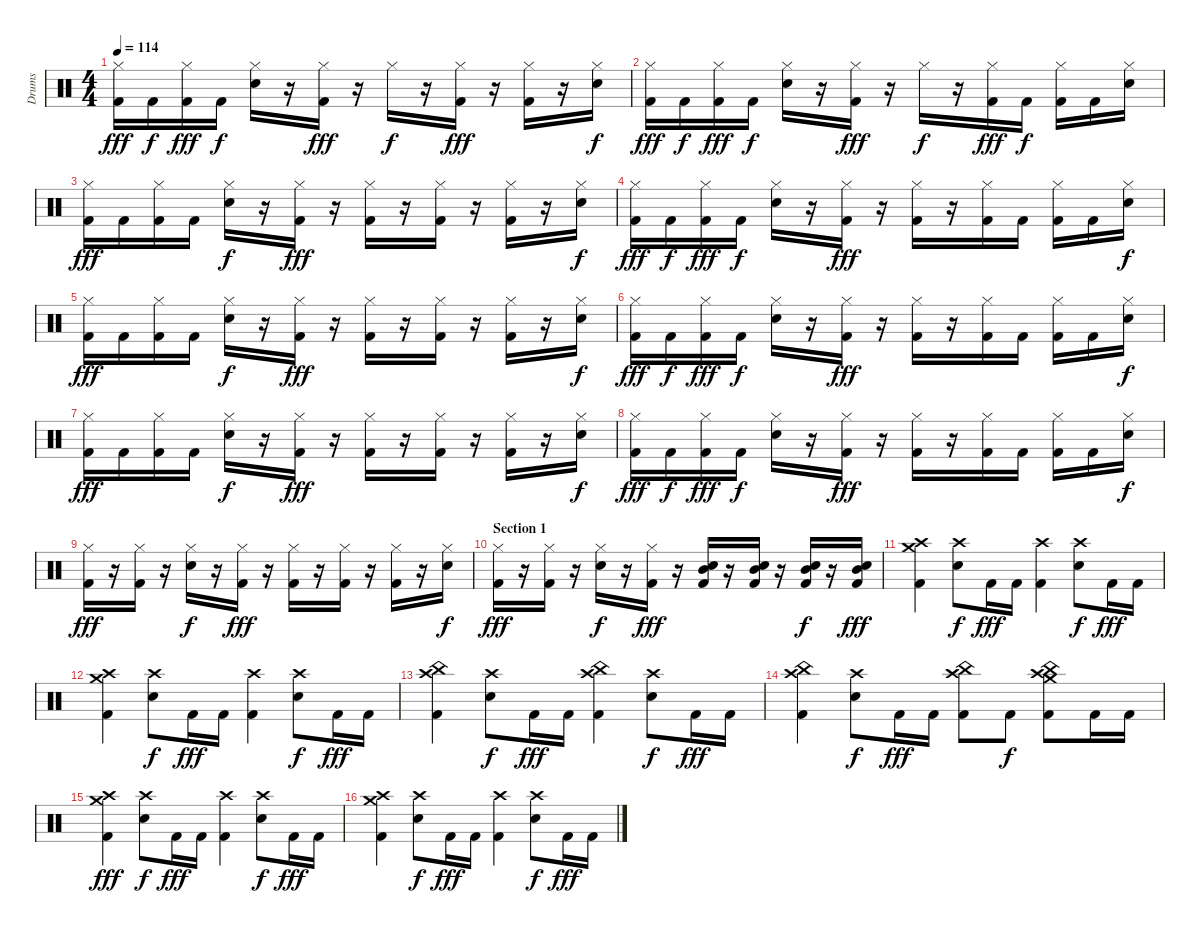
\track ("Drums" "Drums") {instrument percussion}
\staff {score}
\articulation defaults
\ts (4 4)
\tempo 114
\clef neutral
\ks c
("Hi-Hat (closed)" "Kick (hit) 2").16{dy fff} "Kick (hit) 2".16{dy f} ("Hi-Hat (closed)" "Kick (hit) 2").16{dy fff} "Kick (hit) 2".16{dy f} ("Hi-Hat (closed)" "Snare (hit) 2").16 r.16 ("Hi-Hat (closed)" "Kick (hit) 2").16{dy fff} r.16 "Hi-Hat (closed)".16{dy f} r.16 ("Hi-Hat (closed)" "Kick (hit) 2").16{dy fff} r.16 ("Hi-Hat (closed)" "Kick (hit) 2").16 r.16 ("Hi-Hat (closed)" "Snare (hit) 2").16{dy f} |
("Hi-Hat (closed)" "Kick (hit) 2").16{dy fff} "Kick (hit) 2".16{dy f} ("Hi-Hat (closed)" "Kick (hit) 2").16{dy fff} "Kick (hit) 2".16{dy f} ("Hi-Hat (closed)" "Snare (hit) 2").16 r.16 ("Hi-Hat (closed)" "Kick (hit) 2").16{dy fff} r.16 "Hi-Hat (closed)".16{dy f} r.16 ("Hi-Hat (closed)" "Kick (hit) 2").16{dy fff} "Kick (hit) 2".16{dy f} ("Hi-Hat (closed)" "Kick (hit) 2").16 "Kick (hit) 2".16 ("Hi-Hat (closed)" "Snare (hit) 2").16 |
("Hi-Hat (closed)" "Kick (hit) 2").16{dy fff} "Kick (hit) 2".16 ("Hi-Hat (closed)" "Kick (hit) 2").16 "Kick (hit) 2".16 ("Hi-Hat (closed)" "Snare (hit) 2").16{dy f} r.16 ("Hi-Hat (closed)" "Kick (hit) 2").16{dy fff} r.16 ("Hi-Hat (closed)" "Kick (hit) 2").16 r.16 ("Hi-Hat (closed)" "Kick (hit) 2").16 r.16 ("Hi-Hat (closed)" "Kick (hit) 2").16 r.16 ("Hi-Hat (closed)" "Snare (hit) 2").16{dy f} |
("Hi-Hat (closed)" "Kick (hit) 2").16{dy fff} "Kick (hit) 2".16{dy f} ("Hi-Hat (closed)" "Kick (hit) 2").16{dy fff} "Kick (hit) 2".16{dy f} ("Hi-Hat (closed)" "Snare (hit) 2").16 r.16 ("Hi-Hat (closed)" "Kick (hit) 2").16{dy fff} r.16 ("Hi-Hat (closed)" "Kick (hit) 2").16 r.16 ("Hi-Hat (closed)" "Kick (hit) 2").16 "Kick (hit) 2".16 ("Hi-Hat (closed)" "Kick (hit) 2").16 "Kick (hit) 2".16 ("Hi-Hat (closed)" "Snare (hit) 2").16{dy f} |
("Hi-Hat (closed)" "Kick (hit) 2").16{dy fff} "Kick (hit) 2".16 ("Hi-Hat (closed)" "Kick (hit) 2").16 "Kick (hit) 2".16 ("Hi-Hat (closed)" "Snare (hit) 2").16{dy f} r.16 ("Hi-Hat (closed)" "Kick (hit) 2").16{dy fff} r.16 ("Hi-Hat (closed)" "Kick (hit) 2").16 r.16 ("Hi-Hat (closed)" "Kick (hit) 2").16 r.16 ("Hi-Hat (closed)" "Kick (hit) 2").16 r.16 ("Hi-Hat (closed)" "Snare (hit) 2").16{dy f} |
("Hi-Hat (closed)" "Kick (hit) 2").16{dy fff} "Kick (hit) 2".16{dy f} ("Hi-Hat (closed)" "Kick (hit) 2").16{dy fff} "Kick (hit) 2".16{dy f} ("Hi-Hat (closed)" "Snare (hit) 2").16 r.16 ("Hi-Hat (closed)" "Kick (hit) 2").16{dy fff} r.16 ("Hi-Hat (closed)" "Kick (hit) 2").16 r.16 ("Hi-Hat (closed)" "Kick (hit) 2").16 "Kick (hit) 2".16 ("Hi-Hat (closed)" "Kick (hit) 2").16 "Kick (hit) 2".16 ("Hi-Hat (closed)" "Snare (hit) 2").16{dy f} |
("Hi-Hat (closed)" "Kick (hit) 2").16{dy fff} "Kick (hit) 2".16 ("Hi-Hat (closed)" "Kick (hit) 2").16 "Kick (hit) 2".16 ("Hi-Hat (closed)" "Snare (hit) 2").16{dy f} r.16 ("Hi-Hat (closed)" "Kick (hit) 2").16{dy fff} r.16 ("Hi-Hat (closed)" "Kick (hit) 2").16 r.16 ("Hi-Hat (closed)" "Kick (hit) 2").16 r.16 ("Hi-Hat (closed)" "Kick (hit) 2").16 r.16 ("Hi-Hat (closed)" "Snare (hit) 2").16{dy f} |
("Hi-Hat (closed)" "Kick (hit) 2").16{dy fff} "Kick (hit) 2".16{dy f} ("Hi-Hat (closed)" "Kick (hit) 2").16{dy fff} "Kick (hit) 2".16{dy f} ("Hi-Hat (closed)" "Snare (hit) 2").16 r.16 ("Hi-Hat (closed)" "Kick (hit) 2").16{dy fff} r.16 ("Hi-Hat (closed)" "Kick (hit) 2").16 r.16 ("Hi-Hat (closed)" "Kick (hit) 2").16 "Kick (hit) 2".16 ("Hi-Hat (closed)" "Kick (hit) 2").16 "Kick (hit) 2".16 ("Hi-Hat (closed)" "Snare (hit) 2").16{dy f} |
("Hi-Hat (closed)" "Kick (hit) 2").16{dy fff} r.16 ("Hi-Hat (closed)" "Kick (hit) 2").16 r.16 ("Hi-Hat (closed)" "Snare (hit) 2").16{dy f} r.16 ("Hi-Hat (closed)" "Kick (hit) 2").16{dy fff} r.16 ("Hi-Hat (closed)" "Kick (hit) 2").16 r.16 ("Hi-Hat (closed)" "Kick (hit) 2").16 r.16 ("Hi-Hat (closed)" "Kick (hit) 2").16 r.16 ("Hi-Hat (closed)" "Snare (hit) 2").16{dy f} |
\section ("" "Section 1")
("Hi-Hat (closed)" "Kick (hit) 2").16{dy fff} r.16 ("Hi-Hat (closed)" "Kick (hit) 2").16 r.16 ("Hi-Hat (closed)" "Snare (hit) 2").16{dy f} r.16 ("Hi-Hat (closed)" "Kick (hit) 2").16{dy fff} r.16 ("Mid Tom (hit)" "Kick (hit) 2" "Snare (hit) 2").16 r.16 ("Mid Tom (hit)" "Kick (hit) 2" "Snare (hit) 2").16 r.16 ("Mid Tom (hit)" "Kick (hit) 2" "Snare (hit) 2").16{dy f} r.16 ("Mid Tom (hit)" "Kick (hit) 2" "Snare (hit) 2").16{dy fff} |
("Crash high (hit)" "Crash medium (hit)" "Kick (hit) 2").4 ("Crash high (hit)" "Snare (hit) 2").8{dy f} "Kick (hit) 2".16{dy fff} "Kick (hit) 2".16 ("Crash high (hit)" "Kick (hit) 2").4 ("Crash high (hit)" "Snare (hit) 2").8{dy f} "Kick (hit) 2".16{dy fff} "Kick (hit) 2".16 |
("Crash high (hit)" "Crash medium (hit)" "Kick (hit) 2").4 ("Crash high (hit)" "Snare (hit) 2").8{dy f} "Kick (hit) 2".16{dy fff} "Kick (hit) 2".16 ("Crash high (hit)" "Kick (hit) 2").4 ("Crash high (hit)" "Snare (hit) 2").8{dy f} "Kick (hit) 2".16{dy fff} "Kick (hit) 2".16 |
("Crash high (hit)" "China (hit)" "Kick (hit) 2").4 ("Crash high (hit)" "Snare (hit) 2").8{dy f} "Kick (hit) 2".16{dy fff} "Kick (hit) 2".16 ("Crash high (hit)" "China (hit)" "Kick (hit) 2").4 ("Crash high (hit)" "Snare (hit) 2").8{dy f} "Kick (hit) 2".16{dy fff} "Kick (hit) 2".16 |
("Crash high (hit)" "China (hit)" "Kick (hit) 2").4 ("Crash high (hit)" "Snare (hit) 2").8{dy f} "Kick (hit) 2".16{dy fff} "Kick (hit) 2".16 ("Crash high (hit)" "China (hit)" "Kick (hit) 2").8 "Kick (hit) 2".8{dy f} ("Crash high (hit)" "Crash medium (hit)" "Kick (hit) 2" "China (hit)").8 "Kick (hit) 2".16 "Kick (hit) 2".16 |
("Crash high (hit)" "Crash medium (hit)" "Kick (hit) 2").4{dy fff} ("Crash high (hit)" "Snare (hit) 2").8{dy f} "Kick (hit) 2".16{dy fff} "Kick (hit) 2".16 ("Crash high (hit)" "Kick (hit) 2").4 ("Crash high (hit)" "Snare (hit) 2").8{dy f} "Kick (hit) 2".16{dy fff} "Kick (hit) 2".16 |
("Crash high (hit)" "Crash medium (hit)" "Kick (hit) 2").4 ("Crash high (hit)" "Snare (hit) 2").8{dy f} "Kick (hit) 2".16{dy fff} "Kick (hit) 2".16 ("Crash high (hit)" "Kick (hit) 2").4 ("Crash high (hit)" "Snare (hit) 2").8{dy f} "Kick (hit) 2".16{dy fff} "Kick (hit) 2".16
